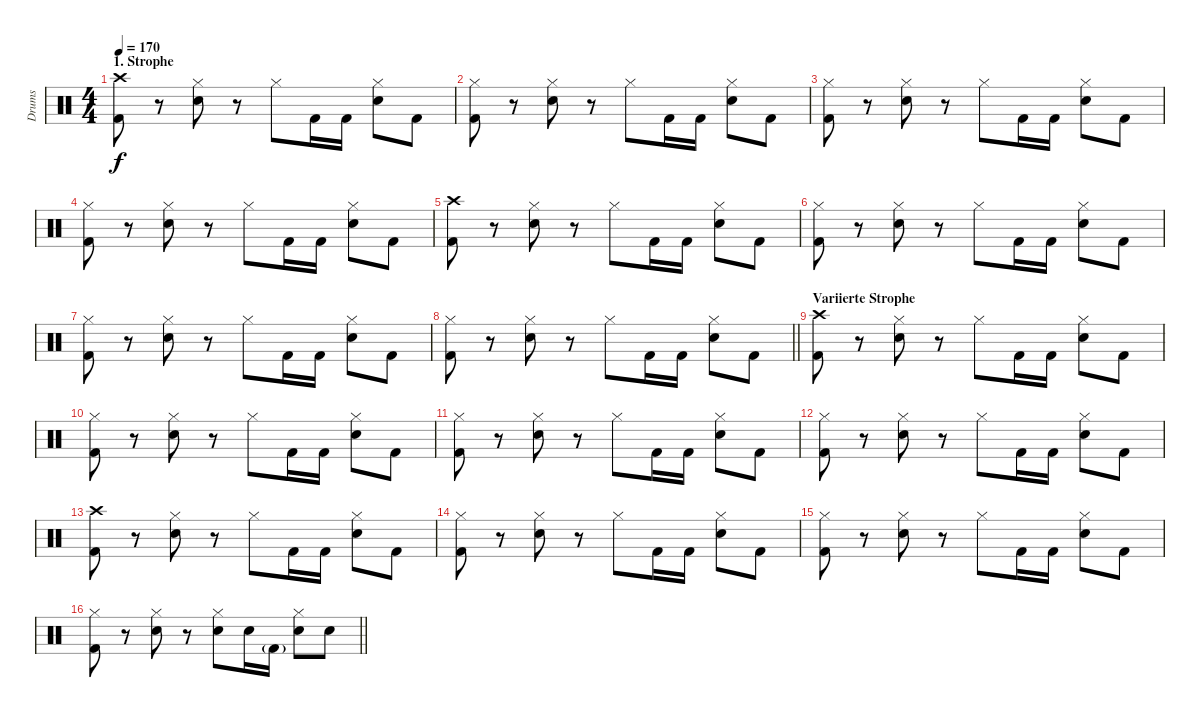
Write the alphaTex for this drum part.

\track ("Drums" "Drums") {instrument percussion}
\staff {score}
\articulation defaults
\ts (4 4)
\section ("" "1. Strophe")
\tempo 170
\clef neutral
\ks c
("Crash high (hit)" "Kick (hit) 2").8{dy f} r.8 ("Hi-Hat (closed)" "Snare (hit) 2").8 r.8 "Hi-Hat (closed)".8 "Kick (hit) 2".16 "Kick (hit) 2".16 ("Hi-Hat (closed)" "Snare (hit) 2").8 "Kick (hit) 2".8 |
("Hi-Hat (closed)" "Kick (hit) 2").8 r.8 ("Hi-Hat (closed)" "Snare (hit) 2").8 r.8 "Hi-Hat (closed)".8 "Kick (hit) 2".16 "Kick (hit) 2".16 ("Hi-Hat (closed)" "Snare (hit) 2").8 "Kick (hit) 2".8 |
("Hi-Hat (closed)" "Kick (hit) 2").8 r.8 ("Hi-Hat (closed)" "Snare (hit) 2").8 r.8 "Hi-Hat (closed)".8 "Kick (hit) 2".16 "Kick (hit) 2".16 ("Hi-Hat (closed)" "Snare (hit) 2").8 "Kick (hit) 2".8 |
("Hi-Hat (closed)" "Kick (hit) 2").8 r.8 ("Hi-Hat (closed)" "Snare (hit) 2").8 r.8 "Hi-Hat (closed)".8 "Kick (hit) 2".16 "Kick (hit) 2".16 ("Hi-Hat (closed)" "Snare (hit) 2").8 "Kick (hit) 2".8 |
("Crash high (hit)" "Kick (hit) 2").8 r.8 ("Hi-Hat (closed)" "Snare (hit) 2").8 r.8 "Hi-Hat (closed)".8 "Kick (hit) 2".16 "Kick (hit) 2".16 ("Hi-Hat (closed)" "Snare (hit) 2").8 "Kick (hit) 2".8 |
("Hi-Hat (closed)" "Kick (hit) 2").8 r.8 ("Hi-Hat (closed)" "Snare (hit) 2").8 r.8 "Hi-Hat (closed)".8 "Kick (hit) 2".16 "Kick (hit) 2".16 ("Hi-Hat (closed)" "Snare (hit) 2").8 "Kick (hit) 2".8 |
("Hi-Hat (closed)" "Kick (hit) 2").8 r.8 ("Hi-Hat (closed)" "Snare (hit) 2").8 r.8 "Hi-Hat (closed)".8 "Kick (hit) 2".16 "Kick (hit) 2".16 ("Hi-Hat (closed)" "Snare (hit) 2").8 "Kick (hit) 2".8 |
\barLineRight lightlight
("Hi-Hat (closed)" "Kick (hit) 2").8 r.8 ("Hi-Hat (closed)" "Snare (hit) 2").8 r.8 "Hi-Hat (closed)".8 "Kick (hit) 2".16 "Kick (hit) 2".16 ("Hi-Hat (closed)" "Snare (hit) 2").8 "Kick (hit) 2".8 |
\section ("" "Variierte Strophe")
("Crash high (hit)" "Kick (hit) 2").8 r.8 ("Hi-Hat (closed)" "Snare (hit) 2").8 r.8 "Hi-Hat (closed)".8 "Kick (hit) 2".16 "Kick (hit) 2".16 ("Hi-Hat (closed)" "Snare (hit) 2").8 "Kick (hit) 2".8 |
("Hi-Hat (closed)" "Kick (hit) 2").8 r.8 ("Hi-Hat (closed)" "Snare (hit) 2").8 r.8 "Hi-Hat (closed)".8 "Kick (hit) 2".16 "Kick (hit) 2".16 ("Hi-Hat (closed)" "Snare (hit) 2").8 "Kick (hit) 2".8 |
("Hi-Hat (closed)" "Kick (hit) 2").8 r.8 ("Hi-Hat (closed)" "Snare (hit) 2").8 r.8 "Hi-Hat (closed)".8 "Kick (hit) 2".16 "Kick (hit) 2".16 ("Hi-Hat (closed)" "Snare (hit) 2").8 "Kick (hit) 2".8 |
("Hi-Hat (closed)" "Kick (hit) 2").8 r.8 ("Hi-Hat (closed)" "Snare (hit) 2").8 r.8 "Hi-Hat (closed)".8 "Kick (hit) 2".16 "Kick (hit) 2".16 ("Hi-Hat (closed)" "Snare (hit) 2").8 "Kick (hit) 2".8 |
("Crash high (hit)" "Kick (hit) 2").8 r.8 ("Hi-Hat (closed)" "Snare (hit) 2").8 r.8 "Hi-Hat (closed)".8 "Kick (hit) 2".16 "Kick (hit) 2".16 ("Hi-Hat (closed)" "Snare (hit) 2").8 "Kick (hit) 2".8 |
("Hi-Hat (closed)" "Kick (hit) 2").8 r.8 ("Hi-Hat (closed)" "Snare (hit) 2").8 r.8 "Hi-Hat (closed)".8 "Kick (hit) 2".16 "Kick (hit) 2".16 ("Hi-Hat (closed)" "Snare (hit) 2").8 "Kick (hit) 2".8 |
("Hi-Hat (closed)" "Kick (hit) 2").8 r.8 ("Hi-Hat (closed)" "Snare (hit) 2").8 r.8 "Hi-Hat (closed)".8 "Kick (hit) 2".16 "Kick (hit) 2".16 ("Hi-Hat (closed)" "Snare (hit) 2").8 "Kick (hit) 2".8 |
\barLineRight lightlight
("Hi-Hat (closed)" "Kick (hit) 2").8 r.8 ("Hi-Hat (closed)" "Snare (hit) 2").8 r.8 ("Hi-Hat (closed)" "Snare (hit) 2").8 "Snare (hit) 2".16 "Kick (hit) 2"{g}.16 ("Hi-Hat (closed)" "Snare (hit) 2").8 "Snare (hit) 2".8
